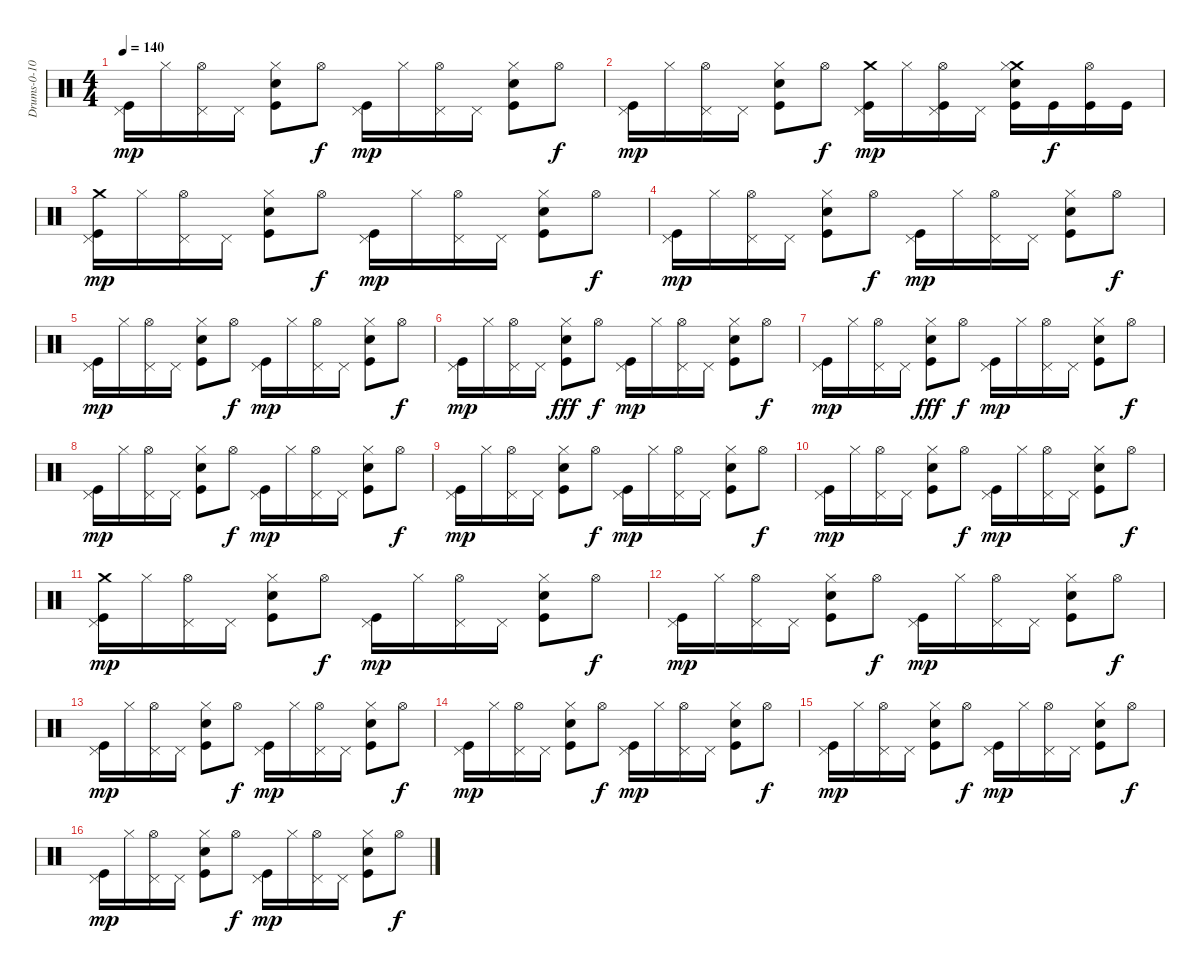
\track ("Drums-0-10" "Drums-0-10") {instrument percussion}
\staff {score}
\articulation defaults
\ts (4 4)
\tempo 140
\clef neutral
\ks c
("Pedal Hi-Hat (hit)" "Kick (hit)").16{dy mp} "Hi-Hat (closed)".16 ("Pedal Hi-Hat (hit)" "Hi-Hat (open)").16 "Pedal Hi-Hat (hit)".16 ("Kick (hit)" "Hand Clap (hit)" "Hi-Hat (closed)").8 "Hi-Hat (open)".8{dy f} ("Kick (hit)" "Pedal Hi-Hat (hit)").16{dy mp} "Hi-Hat (closed)".16 ("Hi-Hat (open)" "Pedal Hi-Hat (hit)").16 "Pedal Hi-Hat (hit)".16 ("Kick (hit)" "Hi-Hat (closed)" "Hand Clap (hit)").8 "Hi-Hat (open)".8{dy f} |
("Pedal Hi-Hat (hit)" "Kick (hit)").16{dy mp} "Hi-Hat (closed)".16 ("Pedal Hi-Hat (hit)" "Hi-Hat (open)").16 "Pedal Hi-Hat (hit)".16 ("Hand Clap (hit)" "Kick (hit)" "Hi-Hat (closed)").8 "Hi-Hat (open)".8{dy f} ("Kick (hit)" "Crash medium (hit)" "Pedal Hi-Hat (hit)").16{dy mp} "Hi-Hat (closed)".16 ("Kick (hit)" "Hi-Hat (open)" "Pedal Hi-Hat (hit)").16 "Pedal Hi-Hat (hit)".16 ("Kick (hit)" "Crash medium (hit)" "Hand Clap (hit)" "Hi-Hat (closed)").16 "Kick (hit)".16{dy f} ("Kick (hit)" "Hi-Hat (open)").16 "Kick (hit)".16 |
("Crash medium (hit)" "Kick (hit)" "Pedal Hi-Hat (hit)").16{dy mp} "Hi-Hat (closed)".16 ("Hi-Hat (open)" "Pedal Hi-Hat (hit)").16 "Pedal Hi-Hat (hit)".16 ("Kick (hit)" "Hand Clap (hit)" "Hi-Hat (closed)").8 "Hi-Hat (open)".8{dy f} ("Pedal Hi-Hat (hit)" "Kick (hit)").16{dy mp} "Hi-Hat (closed)".16 ("Pedal Hi-Hat (hit)" "Hi-Hat (open)").16 "Pedal Hi-Hat (hit)".16 ("Hi-Hat (closed)" "Hand Clap (hit)" "Kick (hit)").8 "Hi-Hat (open)".8{dy f} |
("Kick (hit)" "Pedal Hi-Hat (hit)").16{dy mp} "Hi-Hat (closed)".16 ("Hi-Hat (open)" "Pedal Hi-Hat (hit)").16 "Pedal Hi-Hat (hit)".16 ("Kick (hit)" "Hand Clap (hit)" "Hi-Hat (closed)").8 "Hi-Hat (open)".8{dy f} ("Pedal Hi-Hat (hit)" "Kick (hit)").16{dy mp} "Hi-Hat (closed)".16 ("Pedal Hi-Hat (hit)" "Hi-Hat (open)").16 "Pedal Hi-Hat (hit)".16 ("Kick (hit)" "Hand Clap (hit)" "Hi-Hat (closed)").8 "Hi-Hat (open)".8{dy f} |
("Kick (hit)" "Pedal Hi-Hat (hit)").16{dy mp} "Hi-Hat (closed)".16 ("Hi-Hat (open)" "Pedal Hi-Hat (hit)").16 "Pedal Hi-Hat (hit)".16 ("Hand Clap (hit)" "Kick (hit)" "Hi-Hat (closed)").8 "Hi-Hat (open)".8{dy f} ("Kick (hit)" "Pedal Hi-Hat (hit)").16{dy mp} "Hi-Hat (closed)".16 ("Pedal Hi-Hat (hit)" "Hi-Hat (open)").16 "Pedal Hi-Hat (hit)".16 ("Hand Clap (hit)" "Kick (hit)" "Hi-Hat (closed)").8 "Hi-Hat (open)".8{dy f} |
("Pedal Hi-Hat (hit)" "Kick (hit)").16{dy mp} "Hi-Hat (closed)".16 ("Pedal Hi-Hat (hit)" "Hi-Hat (open)").16 "Pedal Hi-Hat (hit)".16 ("Kick (hit)" "Hi-Hat (closed)" "Hand Clap (hit)").8{dy fff} "Hi-Hat (open)".8{dy f} ("Kick (hit)" "Pedal Hi-Hat (hit)").16{dy mp} "Hi-Hat (closed)".16 ("Hi-Hat (open)" "Pedal Hi-Hat (hit)").16 "Pedal Hi-Hat (hit)".16 ("Hand Clap (hit)" "Kick (hit)" "Hi-Hat (closed)").8 "Hi-Hat (open)".8{dy f} |
("Pedal Hi-Hat (hit)" "Kick (hit)").16{dy mp} "Hi-Hat (closed)".16 ("Hi-Hat (open)" "Pedal Hi-Hat (hit)").16 "Pedal Hi-Hat (hit)".16 ("Kick (hit)" "Hi-Hat (closed)" "Hand Clap (hit)").8{dy fff} "Hi-Hat (open)".8{dy f} ("Pedal Hi-Hat (hit)" "Kick (hit)").16{dy mp} "Hi-Hat (closed)".16 ("Pedal Hi-Hat (hit)" "Hi-Hat (open)").16 "Pedal Hi-Hat (hit)".16 ("Hand Clap (hit)" "Kick (hit)" "Hi-Hat (closed)").8 "Hi-Hat (open)".8{dy f} |
("Pedal Hi-Hat (hit)" "Kick (hit)").16{dy mp} "Hi-Hat (closed)".16 ("Hi-Hat (open)" "Pedal Hi-Hat (hit)").16 "Pedal Hi-Hat (hit)".16 ("Kick (hit)" "Hand Clap (hit)" "Hi-Hat (closed)").8 "Hi-Hat (open)".8{dy f} ("Kick (hit)" "Pedal Hi-Hat (hit)").16{dy mp} "Hi-Hat (closed)".16 ("Pedal Hi-Hat (hit)" "Hi-Hat (open)").16 "Pedal Hi-Hat (hit)".16 ("Hand Clap (hit)" "Kick (hit)" "Hi-Hat (closed)").8 "Hi-Hat (open)".8{dy f} |
("Pedal Hi-Hat (hit)" "Kick (hit)").16{dy mp} "Hi-Hat (closed)".16 ("Pedal Hi-Hat (hit)" "Hi-Hat (open)").16 "Pedal Hi-Hat (hit)".16 ("Kick (hit)" "Hand Clap (hit)" "Hi-Hat (closed)").8 "Hi-Hat (open)".8{dy f} ("Kick (hit)" "Pedal Hi-Hat (hit)").16{dy mp} "Hi-Hat (closed)".16 ("Hi-Hat (open)" "Pedal Hi-Hat (hit)").16 "Pedal Hi-Hat (hit)".16 ("Kick (hit)" "Hi-Hat (closed)" "Hand Clap (hit)").8 "Hi-Hat (open)".8{dy f} |
("Pedal Hi-Hat (hit)" "Kick (hit)").16{dy mp} "Hi-Hat (closed)".16 ("Pedal Hi-Hat (hit)" "Hi-Hat (open)").16 "Pedal Hi-Hat (hit)".16 ("Hand Clap (hit)" "Kick (hit)" "Hi-Hat (closed)").8 "Hi-Hat (open)".8{dy f} ("Kick (hit)" "Pedal Hi-Hat (hit)").16{dy mp} "Hi-Hat (closed)".16 ("Hi-Hat (open)" "Pedal Hi-Hat (hit)").16 "Pedal Hi-Hat (hit)".16 ("Kick (hit)" "Hand Clap (hit)" "Hi-Hat (closed)").8 "Hi-Hat (open)".8{dy f} |
("Crash medium (hit)" "Kick (hit)" "Pedal Hi-Hat (hit)").16{dy mp} "Hi-Hat (closed)".16 ("Pedal Hi-Hat (hit)" "Hi-Hat (open)").16 "Pedal Hi-Hat (hit)".16 ("Kick (hit)" "Hand Clap (hit)" "Hi-Hat (closed)").8 "Hi-Hat (open)".8{dy f} ("Kick (hit)" "Pedal Hi-Hat (hit)").16{dy mp} "Hi-Hat (closed)".16 ("Pedal Hi-Hat (hit)" "Hi-Hat (open)").16 "Pedal Hi-Hat (hit)".16 ("Kick (hit)" "Hand Clap (hit)" "Hi-Hat (closed)").8 "Hi-Hat (open)".8{dy f} |
("Kick (hit)" "Pedal Hi-Hat (hit)").16{dy mp} "Hi-Hat (closed)".16 ("Pedal Hi-Hat (hit)" "Hi-Hat (open)").16 "Pedal Hi-Hat (hit)".16 ("Kick (hit)" "Hand Clap (hit)" "Hi-Hat (closed)").8 "Hi-Hat (open)".8{dy f} ("Kick (hit)" "Pedal Hi-Hat (hit)").16{dy mp} "Hi-Hat (closed)".16 ("Pedal Hi-Hat (hit)" "Hi-Hat (open)").16 "Pedal Hi-Hat (hit)".16 ("Kick (hit)" "Hand Clap (hit)" "Hi-Hat (closed)").8 "Hi-Hat (open)".8{dy f} |
("Kick (hit)" "Pedal Hi-Hat (hit)").16{dy mp} "Hi-Hat (closed)".16 ("Pedal Hi-Hat (hit)" "Hi-Hat (open)").16 "Pedal Hi-Hat (hit)".16 ("Kick (hit)" "Hand Clap (hit)" "Hi-Hat (closed)").8 "Hi-Hat (open)".8{dy f} ("Kick (hit)" "Pedal Hi-Hat (hit)").16{dy mp} "Hi-Hat (closed)".16 ("Pedal Hi-Hat (hit)" "Hi-Hat (open)").16 "Pedal Hi-Hat (hit)".16 ("Kick (hit)" "Hand Clap (hit)" "Hi-Hat (closed)").8 "Hi-Hat (open)".8{dy f} |
("Kick (hit)" "Pedal Hi-Hat (hit)").16{dy mp} "Hi-Hat (closed)".16 ("Pedal Hi-Hat (hit)" "Hi-Hat (open)").16 "Pedal Hi-Hat (hit)".16 ("Kick (hit)" "Hand Clap (hit)" "Hi-Hat (closed)").8 "Hi-Hat (open)".8{dy f} ("Kick (hit)" "Pedal Hi-Hat (hit)").16{dy mp} "Hi-Hat (closed)".16 ("Pedal Hi-Hat (hit)" "Hi-Hat (open)").16 "Pedal Hi-Hat (hit)".16 ("Kick (hit)" "Hand Clap (hit)" "Hi-Hat (closed)").8 "Hi-Hat (open)".8{dy f} |
("Kick (hit)" "Pedal Hi-Hat (hit)").16{dy mp} "Hi-Hat (closed)".16 ("Pedal Hi-Hat (hit)" "Hi-Hat (open)").16 "Pedal Hi-Hat (hit)".16 ("Kick (hit)" "Hand Clap (hit)" "Hi-Hat (closed)").8 "Hi-Hat (open)".8{dy f} ("Kick (hit)" "Pedal Hi-Hat (hit)").16{dy mp} "Hi-Hat (closed)".16 ("Pedal Hi-Hat (hit)" "Hi-Hat (open)").16 "Pedal Hi-Hat (hit)".16 ("Kick (hit)" "Hand Clap (hit)" "Hi-Hat (closed)").8 "Hi-Hat (open)".8{dy f} |
("Kick (hit)" "Pedal Hi-Hat (hit)").16{dy mp} "Hi-Hat (closed)".16 ("Pedal Hi-Hat (hit)" "Hi-Hat (open)").16 "Pedal Hi-Hat (hit)".16 ("Kick (hit)" "Hand Clap (hit)" "Hi-Hat (closed)").8 "Hi-Hat (open)".8{dy f} ("Kick (hit)" "Pedal Hi-Hat (hit)").16{dy mp} "Hi-Hat (closed)".16 ("Pedal Hi-Hat (hit)" "Hi-Hat (open)").16 "Pedal Hi-Hat (hit)".16 ("Kick (hit)" "Hand Clap (hit)" "Hi-Hat (closed)").8 "Hi-Hat (open)".8{dy f}
